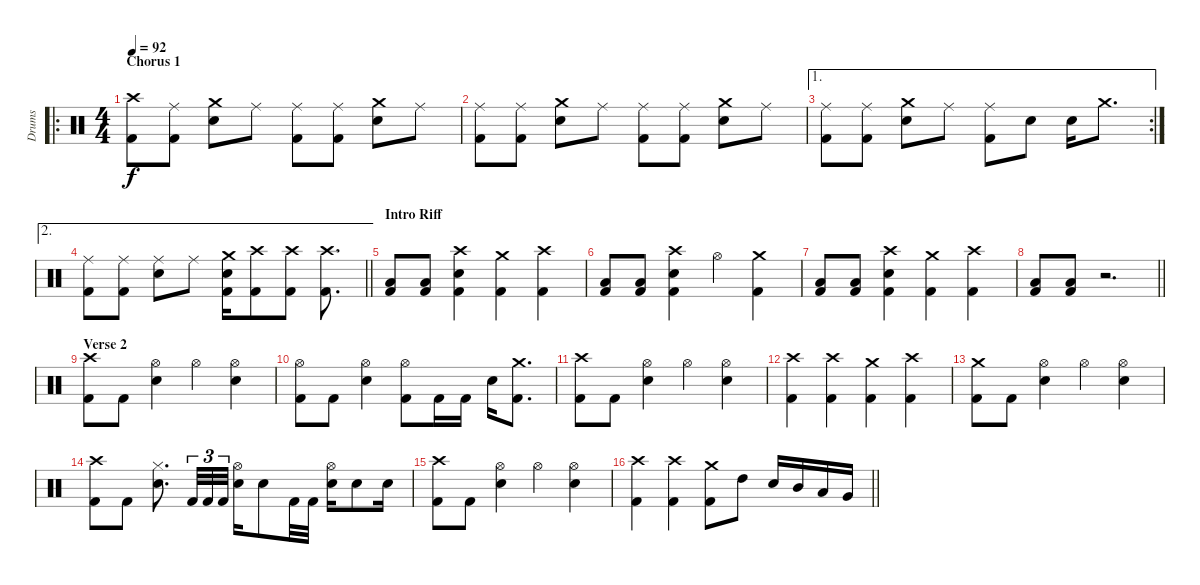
\track ("Drums" "Drums") {instrument percussion}
\staff {score}
\articulation defaults
\ro
\ts (4 4)
\section ("" "Chorus 1")
\tempo 92
\clef neutral
\ks c
("Crash high (hit)" "Kick (hit) 2").8{dy f} ("Ride (middle)" "Kick (hit) 2").8 ("Crash medium (hit)" "Snare (hit) 2").8 "Ride (middle)".8 ("Ride (middle)" "Kick (hit) 2").8 ("Ride (middle)" "Kick (hit) 2").8 ("Crash medium (hit)" "Snare (hit) 2").8 "Ride (middle)".8 |
("Ride (middle)" "Kick (hit) 2").8 ("Ride (middle)" "Kick (hit) 2").8 ("Crash medium (hit)" "Snare (hit) 2").8 "Ride (middle)".8 ("Ride (middle)" "Kick (hit) 2").8 ("Ride (middle)" "Kick (hit) 2").8 ("Crash medium (hit)" "Snare (hit) 2").8 "Ride (middle)".8 |
\ae 1
\rc 2
("Ride (middle)" "Kick (hit) 2").8 ("Ride (middle)" "Kick (hit) 2").8 ("Crash medium (hit)" "Snare (hit) 2").8 "Ride (middle)".8 ("Ride (middle)" "Kick (hit) 2").8 "Snare (hit) 2".8 "Snare (hit) 2".16 "Crash medium (hit)".8{d} |
\ae 2
\barLineRight lightlight
("Ride (middle)" "Kick (hit) 2").8 ("Ride (middle)" "Kick (hit) 2").8 ("Ride (middle)" "Snare (hit) 2").8 "Ride (middle)".8 ("Crash medium (hit)" "Snare (hit) 2" "Kick (hit) 2").16 ("Crash high (hit)" "Kick (hit) 2").8 ("Crash high (hit)" "Kick (hit) 2").8 ("Crash high (hit)" "Kick (hit) 2").8{d} |
\section ("" "Intro Riff")
("Low Floor Tom (hit)" "Kick (hit) 2").8 ("Low Floor Tom (hit)" "Kick (hit) 2").8 ("Crash high (hit)" "Snare (hit) 2" "Kick (hit) 2").4 ("Crash medium (hit)" "Kick (hit) 2").4 ("Crash high (hit)" "Kick (hit) 2").4 |
("Low Floor Tom (hit)" "Kick (hit) 2").8 ("Low Floor Tom (hit)" "Kick (hit) 2").8 ("Crash high (hit)" "Snare (hit) 2" "Kick (hit) 2").4 "Hi-Hat (open)".4 ("Crash medium (hit)" "Kick (hit) 2").4 |
("Low Floor Tom (hit)" "Kick (hit) 2").8 ("Low Floor Tom (hit)" "Kick (hit) 2").8 ("Crash high (hit)" "Snare (hit) 2" "Kick (hit) 2").4 ("Crash medium (hit)" "Kick (hit) 2").4 ("Crash high (hit)" "Kick (hit) 2").4 |
\barLineRight lightlight
("Low Floor Tom (hit)" "Kick (hit) 2").8 ("Low Floor Tom (hit)" "Kick (hit) 2").8 r.2{d} |
\section ("" "Verse 2")
("Crash high (hit)" "Kick (hit) 2").8 "Kick (hit) 2".8 ("Hi-Hat (open)" "Snare (hit) 2").4 "Hi-Hat (open)".4 ("Hi-Hat (open)" "Snare (hit) 2").4 |
("Hi-Hat (open)" "Kick (hit) 2").8 "Kick (hit) 2".8 ("Hi-Hat (open)" "Snare (hit) 2").4 ("Hi-Hat (open)" "Kick (hit) 2").8 "Kick (hit) 2".16 "Kick (hit) 2".16 "Snare (hit) 2".16 ("Crash medium (hit)" "Kick (hit) 2").8{d} |
("Crash high (hit)" "Kick (hit) 2").8 "Kick (hit) 2".8 ("Hi-Hat (open)" "Snare (hit) 2").4 "Hi-Hat (open)".4 ("Hi-Hat (open)" "Snare (hit) 2").4 |
("Crash high (hit)" "Kick (hit) 2").4 ("Crash high (hit)" "Kick (hit) 2").4 ("Crash medium (hit)" "Kick (hit) 2").4 ("Crash high (hit)" "Kick (hit) 2").4 |
("Crash medium (hit)" "Kick (hit) 2").8 "Kick (hit) 2".8 ("Hi-Hat (open)" "Snare (hit) 2").4 "Hi-Hat (open)".4 ("Hi-Hat (open)" "Snare (hit) 2").4 |
("Crash high (hit)" "Kick (hit) 2").8 "Kick (hit) 2".8 ("Hi-Hat (closed)" "Snare (hit) 2").8{d} "Kick (hit) 2".32{tu (3 2)} "Kick (hit) 2".32{tu (3 2)} "Kick (hit) 2".32{tu (3 2)} ("Hi-Hat (open)" "Snare (hit) 2").16 "Snare (hit) 2".8 "Kick (hit) 2".32 "Kick (hit) 2".32 ("Hi-Hat (open)" "Snare (hit) 2").16 "Snare (hit) 2".8 "Snare (hit) 2".16 |
("Crash high (hit)" "Kick (hit) 2").8 "Kick (hit) 2".8 ("Hi-Hat (open)" "Snare (hit) 2").4 "Hi-Hat (open)".4 ("Hi-Hat (open)" "Snare (hit) 2").4 |
\barLineRight lightlight
("Crash high (hit)" "Kick (hit) 2").4 ("Crash high (hit)" "Kick (hit) 2").4 ("Crash medium (hit)" "Kick (hit) 2").8 "High Tom (hit)".8 "Snare (hit) 2".16 "Mid Tom (hit)".16 "Low Tom (hit)".16 "Very Low Tom (hit)".16
